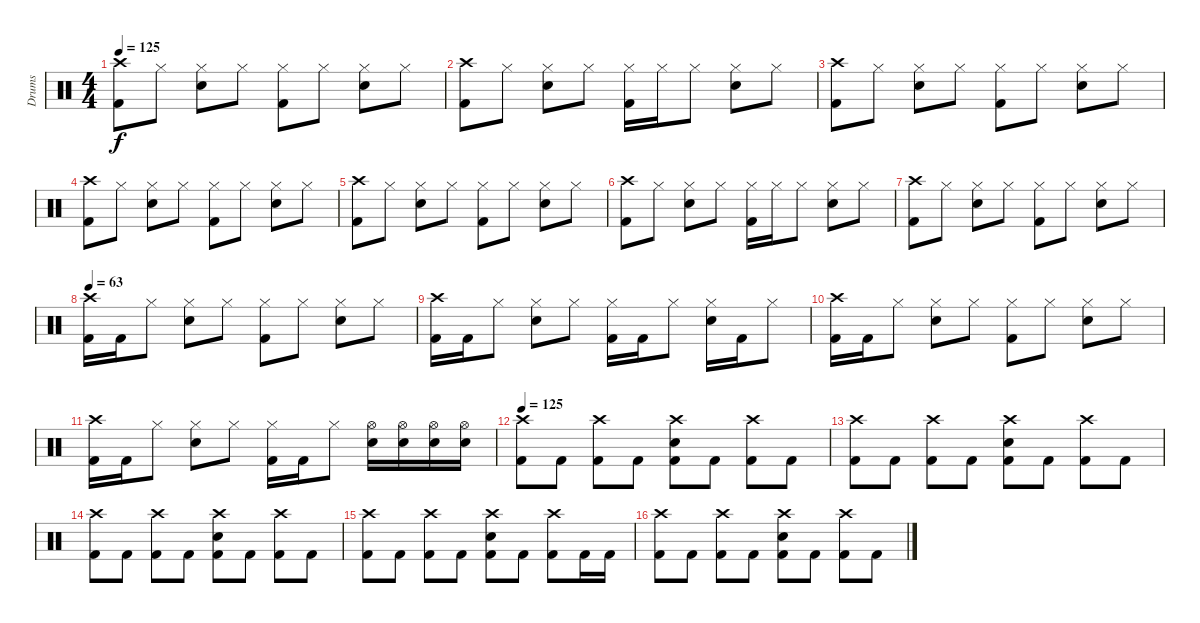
\track ("Drums" "Drums") {instrument percussion}
\staff {score}
\articulation defaults
\ts (4 4)
\tempo 125
\clef neutral
\ks c
("Crash high (hit)" "Kick (hit) 2").8{dy f} "Hi-Hat (closed)".8 ("Hi-Hat (closed)" "Electric Snare (hit)").8 "Hi-Hat (closed)".8 ("Hi-Hat (closed)" "Kick (hit) 2").8 "Hi-Hat (closed)".8 ("Hi-Hat (closed)" "Electric Snare (hit)").8 "Hi-Hat (closed)".8 |
("Crash high (hit)" "Kick (hit) 2").8 "Hi-Hat (closed)".8 ("Hi-Hat (closed)" "Electric Snare (hit)").8 "Hi-Hat (closed)".8 ("Hi-Hat (closed)" "Kick (hit) 2").16 "Hi-Hat (closed)".16 "Hi-Hat (closed)".8 ("Hi-Hat (closed)" "Electric Snare (hit)").8 "Hi-Hat (closed)".8 |
("Crash high (hit)" "Kick (hit) 2").8 "Hi-Hat (closed)".8 ("Hi-Hat (closed)" "Electric Snare (hit)").8 "Hi-Hat (closed)".8 ("Hi-Hat (closed)" "Kick (hit) 2").8 "Hi-Hat (closed)".8 ("Hi-Hat (closed)" "Electric Snare (hit)").8 "Hi-Hat (closed)".8 |
("Crash high (hit)" "Kick (hit) 2").8 "Hi-Hat (closed)".8 ("Hi-Hat (closed)" "Electric Snare (hit)").8 "Hi-Hat (closed)".8 ("Hi-Hat (closed)" "Kick (hit) 2").8 "Hi-Hat (closed)".8 ("Hi-Hat (closed)" "Electric Snare (hit)").8 "Hi-Hat (closed)".8 |
("Crash high (hit)" "Kick (hit) 2").8 "Hi-Hat (closed)".8 ("Hi-Hat (closed)" "Electric Snare (hit)").8 "Hi-Hat (closed)".8 ("Hi-Hat (closed)" "Kick (hit) 2").8 "Hi-Hat (closed)".8 ("Hi-Hat (closed)" "Electric Snare (hit)").8 "Hi-Hat (closed)".8 |
("Crash high (hit)" "Kick (hit) 2").8 "Hi-Hat (closed)".8 ("Hi-Hat (closed)" "Electric Snare (hit)").8 "Hi-Hat (closed)".8 ("Hi-Hat (closed)" "Kick (hit) 2").16 "Hi-Hat (closed)".16 "Hi-Hat (closed)".8 ("Hi-Hat (closed)" "Electric Snare (hit)").8 "Hi-Hat (closed)".8 |
("Crash high (hit)" "Kick (hit) 2").8 "Hi-Hat (closed)".8 ("Hi-Hat (closed)" "Electric Snare (hit)").8 "Hi-Hat (closed)".8 ("Hi-Hat (closed)" "Kick (hit) 2").8 "Hi-Hat (closed)".8 ("Hi-Hat (closed)" "Electric Snare (hit)").8 "Hi-Hat (closed)".8 |
\tempo 63
("Crash high (hit)" "Kick (hit) 2").16 "Kick (hit) 2".16 "Hi-Hat (closed)".8 ("Hi-Hat (closed)" "Electric Snare (hit)").8 "Hi-Hat (closed)".8 ("Hi-Hat (closed)" "Kick (hit) 2").8 "Hi-Hat (closed)".8 ("Hi-Hat (closed)" "Electric Snare (hit)").8 "Hi-Hat (closed)".8 |
("Crash high (hit)" "Kick (hit) 2").16 "Kick (hit) 2".16 "Hi-Hat (closed)".8 ("Hi-Hat (closed)" "Electric Snare (hit)").8 "Hi-Hat (closed)".8 ("Hi-Hat (closed)" "Kick (hit) 2").16 "Kick (hit) 2".16 "Hi-Hat (closed)".8 ("Hi-Hat (closed)" "Electric Snare (hit)").16 "Kick (hit) 2".16 "Hi-Hat (closed)".8 |
("Crash high (hit)" "Kick (hit) 2").16 "Kick (hit) 2".16 "Hi-Hat (closed)".8 ("Hi-Hat (closed)" "Electric Snare (hit)").8 "Hi-Hat (closed)".8 ("Hi-Hat (closed)" "Kick (hit) 2").8 "Hi-Hat (closed)".8 ("Hi-Hat (closed)" "Electric Snare (hit)").8 "Hi-Hat (closed)".8 |
("Crash high (hit)" "Kick (hit) 2").16 "Kick (hit) 2".16 "Hi-Hat (closed)".8 ("Hi-Hat (closed)" "Electric Snare (hit)").8 "Hi-Hat (closed)".8 ("Hi-Hat (closed)" "Kick (hit) 2").16 "Kick (hit) 2".16 "Hi-Hat (closed)".8 ("Hi-Hat (open)" "Electric Snare (hit)").16 ("Hi-Hat (open)" "Electric Snare (hit)").16 ("Hi-Hat (open)" "Electric Snare (hit)").16 ("Hi-Hat (open)" "Electric Snare (hit)").16 |
\tempo 125
("Crash high (hit)" "Kick (hit) 2").8 "Kick (hit) 2".8 ("Crash high (hit)" "Kick (hit) 2").8 "Kick (hit) 2".8 ("Crash high (hit)" "Electric Snare (hit)" "Kick (hit) 2").8 "Kick (hit) 2".8 ("Crash high (hit)" "Kick (hit) 2").8 "Kick (hit) 2".8 |
("Crash high (hit)" "Kick (hit) 2").8 "Kick (hit) 2".8 ("Crash high (hit)" "Kick (hit) 2").8 "Kick (hit) 2".8 ("Crash high (hit)" "Electric Snare (hit)" "Kick (hit) 2").8 "Kick (hit) 2".8 ("Crash high (hit)" "Kick (hit) 2").8 "Kick (hit) 2".8 |
("Crash high (hit)" "Kick (hit) 2").8 "Kick (hit) 2".8 ("Crash high (hit)" "Kick (hit) 2").8 "Kick (hit) 2".8 ("Crash high (hit)" "Electric Snare (hit)" "Kick (hit) 2").8 "Kick (hit) 2".8 ("Crash high (hit)" "Kick (hit) 2").8 "Kick (hit) 2".8 |
("Crash high (hit)" "Kick (hit) 2").8 "Kick (hit) 2".8 ("Crash high (hit)" "Kick (hit) 2").8 "Kick (hit) 2".8 ("Crash high (hit)" "Electric Snare (hit)" "Kick (hit) 2").8 "Kick (hit) 2".8 ("Crash high (hit)" "Kick (hit) 2").8 "Kick (hit) 2".16 "Kick (hit) 2".16 |
("Crash high (hit)" "Kick (hit) 2").8 "Kick (hit) 2".8 ("Crash high (hit)" "Kick (hit) 2").8 "Kick (hit) 2".8 ("Crash high (hit)" "Electric Snare (hit)" "Kick (hit) 2").8 "Kick (hit) 2".8 ("Crash high (hit)" "Kick (hit) 2").8 "Kick (hit) 2".8
